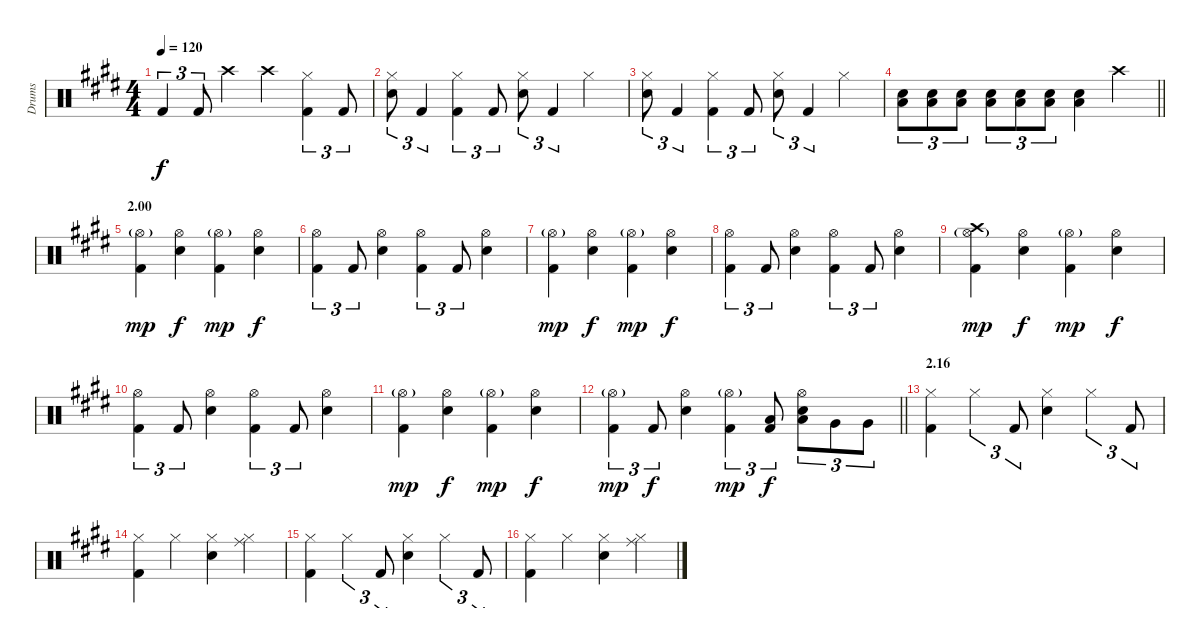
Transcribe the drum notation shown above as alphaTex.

\track ("Drums" "Drums") {instrument percussion}
\staff {score}
\articulation defaults
\ts (4 4)
\tempo 120
\clef neutral
\ks c#minor "Kick (hit) 2".4{tu (3 2) dy f} "Kick (hit) 2".8{tu (3 2)} "Crash high (hit)".4 "Crash high (hit)".4
("Hi-Hat (closed)" "Kick (hit) 2").4{tu (3 2)} "Kick (hit) 2".8{tu (3 2)} |
("Hi-Hat (closed)" "Electric Snare (hit)").8{tu (3 2)} "Kick (hit) 2".4{tu (3 2)} ("Hi-Hat (closed)" "Kick (hit) 2").4{tu (3 2)} "Kick (hit) 2".8{tu (3 2)} ("Hi-Hat (closed)" "Electric Snare (hit)").8{tu (3 2)} "Kick (hit) 2".4{tu (3 2)} "Hi-Hat (closed)".4 |
("Hi-Hat (closed)" "Electric Snare (hit)").8{tu (3 2)} "Kick (hit) 2".4{tu (3 2)} ("Hi-Hat (closed)" "Kick (hit) 2").4{tu (3 2)} "Kick (hit) 2".8{tu (3 2)} ("Hi-Hat (closed)" "Electric Snare (hit)").8{tu (3 2)} "Kick (hit) 2".4{tu (3 2)} "Hi-Hat (closed)".4 |
\barLineRight lightlight
("Electric Snare (hit)" "Low Tom (hit)").8{tu (3 2)} ("Electric Snare (hit)" "Low Tom (hit)").8{tu (3 2)} ("Electric Snare (hit)" "Low Tom (hit)").8{tu (3 2)} ("Electric Snare (hit)" "Low Tom (hit)").8{tu (3 2)} ("Electric Snare (hit)" "Low Tom (hit)").8{tu (3 2)} ("Electric Snare (hit)" "Low Tom (hit)").8{tu (3 2)} ("Electric Snare (hit)" "Low Tom (hit)").4 "Crash high (hit)".4 |
\section ("" "2.00")
("Hi-Hat (open)"{g} "Kick (hit) 2").4{dy mp} ("Hi-Hat (open)" "Electric Snare (hit)").4{dy f} ("Hi-Hat (open)"{g} "Kick (hit) 2").4{dy mp} ("Hi-Hat (open)" "Electric Snare (hit)").4{dy f} |
("Hi-Hat (open)" "Kick (hit) 2").4{tu (3 2)} "Kick (hit) 2".8{tu (3 2)} ("Hi-Hat (open)" "Electric Snare (hit)").4 ("Hi-Hat (open)" "Kick (hit) 2").4{tu (3 2)} "Kick (hit) 2".8{tu (3 2)} ("Hi-Hat (open)" "Electric Snare (hit)").4 |
("Hi-Hat (open)"{g} "Kick (hit) 2").4{dy mp} ("Hi-Hat (open)" "Electric Snare (hit)").4{dy f} ("Hi-Hat (open)"{g} "Kick (hit) 2").4{dy mp} ("Hi-Hat (open)" "Electric Snare (hit)").4{dy f} |
("Hi-Hat (open)" "Kick (hit) 2").4{tu (3 2)} "Kick (hit) 2".8{tu (3 2)} ("Hi-Hat (open)" "Electric Snare (hit)").4 ("Hi-Hat (open)" "Kick (hit) 2").4{tu (3 2)} "Kick (hit) 2".8{tu (3 2)} ("Hi-Hat (open)" "Electric Snare (hit)").4 |
("Crash high (hit)" "Hi-Hat (open)"{g} "Kick (hit) 2").4{dy mp} ("Hi-Hat (open)" "Electric Snare (hit)").4{dy f} ("Hi-Hat (open)"{g} "Kick (hit) 2").4{dy mp} ("Hi-Hat (open)" "Electric Snare (hit)").4{dy f} |
("Hi-Hat (open)" "Kick (hit) 2").4{tu (3 2)} "Kick (hit) 2".8{tu (3 2)} ("Hi-Hat (open)" "Electric Snare (hit)").4 ("Hi-Hat (open)" "Kick (hit) 2").4{tu (3 2)} "Kick (hit) 2".8{tu (3 2)} ("Hi-Hat (open)" "Electric Snare (hit)").4 |
("Hi-Hat (open)"{g} "Kick (hit) 2").4{dy mp} ("Hi-Hat (open)" "Electric Snare (hit)").4{dy f} ("Hi-Hat (open)"{g} "Kick (hit) 2").4{dy mp} ("Hi-Hat (open)" "Electric Snare (hit)").4{dy f} |
\barLineRight lightlight
("Hi-Hat (open)"{g} "Kick (hit) 2").4{tu (3 2) dy mp} "Kick (hit) 2".8{tu (3 2) dy f} ("Hi-Hat (open)" "Electric Snare (hit)").4 ("Hi-Hat (open)"{g} "Kick (hit) 2").4{tu (3 2) dy mp} ("Low Tom (hit)" "Kick (hit) 2").8{tu (3 2) dy f} ("Hi-Hat (open)" "Electric Snare (hit)" "Low Tom (hit)").8{tu (3 2)} "Very Low Tom (hit)".8{tu (3 2)} "Very Low Tom (hit)".8{tu (3 2)} |
\section ("" "2.16")
("Hi-Hat (closed)" "Kick (hit) 2").4 "Hi-Hat (closed)".4{tu (3 2)} "Kick (hit) 2".8{tu (3 2)} ("Hi-Hat (closed)" "Electric Snare (hit)").4 "Hi-Hat (closed)".4{tu (3 2)} "Kick (hit) 2".8{tu (3 2)} |
("Hi-Hat (closed)" "Kick (hit) 2").4 "Hi-Hat (closed)".4 ("Hi-Hat (closed)" "Electric Snare (hit)").4 ("Ride (middle)" "Hi-Hat (closed)").4 |
("Hi-Hat (closed)" "Kick (hit) 2").4 "Hi-Hat (closed)".4{tu (3 2)} "Kick (hit) 2".8{tu (3 2)} ("Hi-Hat (closed)" "Electric Snare (hit)").4 "Hi-Hat (closed)".4{tu (3 2)} "Kick (hit) 2".8{tu (3 2)} |
("Hi-Hat (closed)" "Kick (hit) 2").4 "Hi-Hat (closed)".4 ("Hi-Hat (closed)" "Electric Snare (hit)").4 ("Ride (middle)" "Hi-Hat (closed)").4
